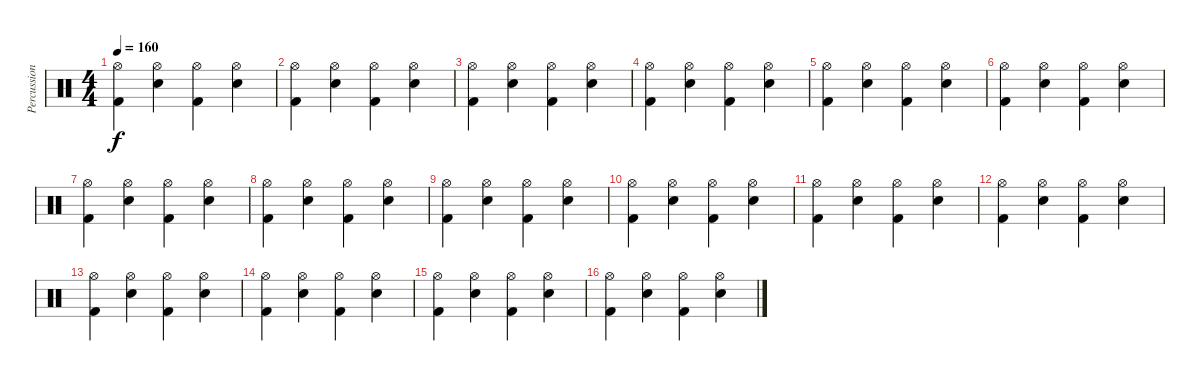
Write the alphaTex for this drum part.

\track ("Percussion" "Percussion") {instrument percussion}
\staff {score}
\articulation defaults
\ts (4 4)
\tempo 160
\clef neutral
\ks c
("Hi-Hat (open)" "Kick (hit) 2").4{dy f} ("Hi-Hat (open)" "Snare (hit) 2").4 ("Hi-Hat (open)" "Kick (hit) 2").4 ("Hi-Hat (open)" "Snare (hit) 2").4 |
("Hi-Hat (open)" "Kick (hit) 2").4 ("Hi-Hat (open)" "Snare (hit) 2").4 ("Hi-Hat (open)" "Kick (hit) 2").4 ("Hi-Hat (open)" "Snare (hit) 2").4 |
("Hi-Hat (open)" "Kick (hit) 2").4 ("Hi-Hat (open)" "Snare (hit) 2").4 ("Hi-Hat (open)" "Kick (hit) 2").4 ("Hi-Hat (open)" "Snare (hit) 2").4 |
("Hi-Hat (open)" "Kick (hit) 2").4 ("Hi-Hat (open)" "Snare (hit) 2").4 ("Hi-Hat (open)" "Kick (hit) 2").4 ("Hi-Hat (open)" "Snare (hit) 2").4 |
("Hi-Hat (open)" "Kick (hit) 2").4 ("Hi-Hat (open)" "Snare (hit) 2").4 ("Hi-Hat (open)" "Kick (hit) 2").4 ("Hi-Hat (open)" "Snare (hit) 2").4 |
("Hi-Hat (open)" "Kick (hit) 2").4 ("Hi-Hat (open)" "Snare (hit) 2").4 ("Hi-Hat (open)" "Kick (hit) 2").4 ("Hi-Hat (open)" "Snare (hit) 2").4 |
("Hi-Hat (open)" "Kick (hit) 2").4 ("Hi-Hat (open)" "Snare (hit) 2").4 ("Hi-Hat (open)" "Kick (hit) 2").4 ("Hi-Hat (open)" "Snare (hit) 2").4 |
("Hi-Hat (open)" "Kick (hit) 2").4 ("Hi-Hat (open)" "Snare (hit) 2").4 ("Hi-Hat (open)" "Kick (hit) 2").4 ("Hi-Hat (open)" "Snare (hit) 2").4 |
("Hi-Hat (open)" "Kick (hit) 2").4 ("Hi-Hat (open)" "Snare (hit) 2").4 ("Hi-Hat (open)" "Kick (hit) 2").4 ("Hi-Hat (open)" "Snare (hit) 2").4 |
("Hi-Hat (open)" "Kick (hit) 2").4 ("Hi-Hat (open)" "Snare (hit) 2").4 ("Hi-Hat (open)" "Kick (hit) 2").4 ("Hi-Hat (open)" "Snare (hit) 2").4 |
("Hi-Hat (open)" "Kick (hit) 2").4 ("Hi-Hat (open)" "Snare (hit) 2").4 ("Hi-Hat (open)" "Kick (hit) 2").4 ("Hi-Hat (open)" "Snare (hit) 2").4 |
("Hi-Hat (open)" "Kick (hit) 2").4 ("Hi-Hat (open)" "Snare (hit) 2").4 ("Hi-Hat (open)" "Kick (hit) 2").4 ("Hi-Hat (open)" "Snare (hit) 2").4 |
("Hi-Hat (open)" "Kick (hit) 2").4 ("Hi-Hat (open)" "Snare (hit) 2").4 ("Hi-Hat (open)" "Kick (hit) 2").4 ("Hi-Hat (open)" "Snare (hit) 2").4 |
("Hi-Hat (open)" "Kick (hit) 2").4 ("Hi-Hat (open)" "Snare (hit) 2").4 ("Hi-Hat (open)" "Kick (hit) 2").4 ("Hi-Hat (open)" "Snare (hit) 2").4 |
("Hi-Hat (open)" "Kick (hit) 2").4 ("Hi-Hat (open)" "Snare (hit) 2").4 ("Hi-Hat (open)" "Kick (hit) 2").4 ("Hi-Hat (open)" "Snare (hit) 2").4 |
("Hi-Hat (open)" "Kick (hit) 2").4 ("Hi-Hat (open)" "Snare (hit) 2").4 ("Hi-Hat (open)" "Kick (hit) 2").4 ("Hi-Hat (open)" "Snare (hit) 2").4
